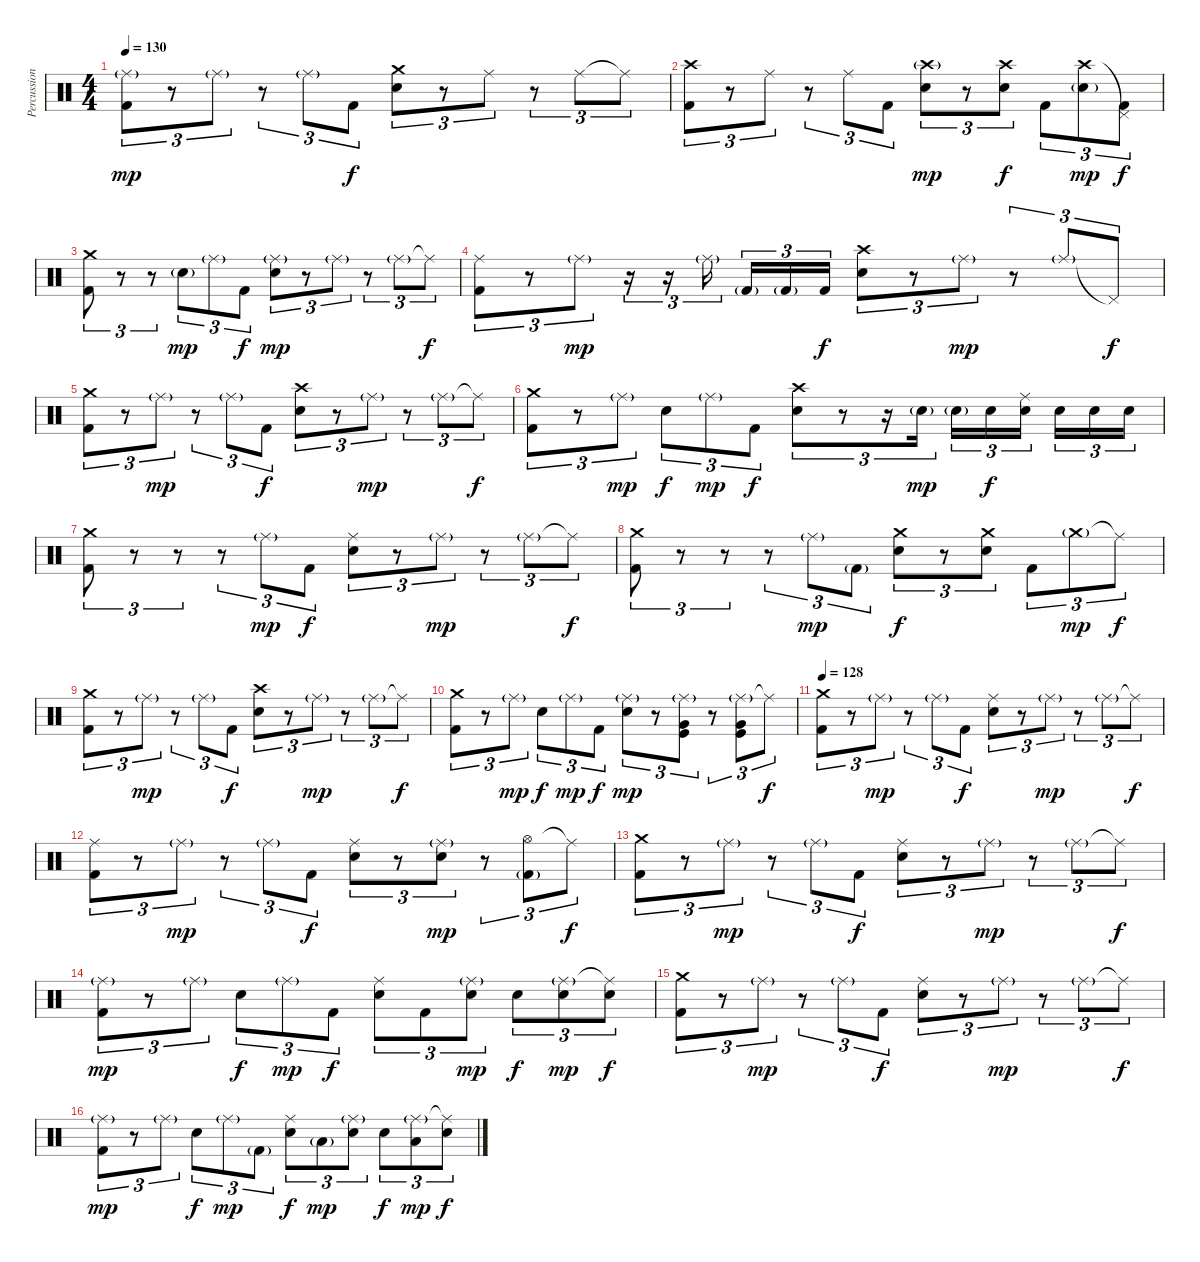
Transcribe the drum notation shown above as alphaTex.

\track ("Percussions" "Percussion") {instrument percussion}
\staff {score}
\articulation defaults
\ts (4 4)
\tempo 130
\clef neutral
\ks c
("Ride (middle)"{g} "Kick (hit) 2").8{tu (3 2) dy mp} r.8{tu (3 2)} "Ride (middle)"{g}.8{tu (3 2)} r.8{tu (3 2)} "Ride (middle)"{g}.8{tu (3 2)} "Kick (hit) 2".8{tu (3 2) dy f} ("Crash medium (hit)" "Electric Snare (hit)").8{tu (3 2)} r.8{tu (3 2)} "Ride (middle)".8{tu (3 2)} r.8{tu (3 2)} "Ride (middle)".8{tu (3 2)} "Ride (middle)"{t}.8{tu (3 2)} |
("Crash high (hit)" "Kick (hit) 2").8{tu (3 2)} r.8{tu (3 2)} "Ride (middle)".8{tu (3 2)} r.8{tu (3 2)} "Ride (middle)".8{tu (3 2)} "Kick (hit) 2".8{tu (3 2)} ("Crash high (hit)"{g} "Electric Snare (hit)").8{tu (3 2) dy mp} r.8{tu (3 2)} ("Crash high (hit)" "Electric Snare (hit)").8{tu (3 2) dy f} "Kick (hit) 2".8{tu (3 2)} ("Crash high (hit)" "Electric Snare (hit)"{g}).8{tu (3 2) dy mp} ("Pedal Hi-Hat (hit)"{t} "Kick (hit) 2").8{tu (3 2) dy f} |
("Crash medium (hit)" "Kick (hit) 2").8{tu (3 2)} r.8{tu (3 2)} r.8{tu (3 2)} "Electric Snare (hit)"{g}.8{tu (3 2) dy mp} "Ride (middle)"{g}.8{tu (3 2)} "Kick (hit) 2".8{tu (3 2) dy f} ("Ride (middle)"{g} "Electric Snare (hit)").8{tu (3 2) dy mp} r.8{tu (3 2)} "Ride (middle)"{g}.8{tu (3 2)} r.8{tu (3 2)} "Ride (middle)"{g}.8{tu (3 2)} "Ride (middle)"{t}.8{tu (3 2) dy f} |
("Ride (middle)" "Kick (hit) 2").8{tu (3 2)} r.8{tu (3 2)} "Ride (middle)"{g}.8{tu (3 2) dy mp} r.16{tu (3 2)} r.16{tu (3 2)} "Ride (middle)"{g}.16{tu (3 2) beam splitsecondary} "Kick (hit) 2"{g}.16{tu (3 2)} "Kick (hit) 2"{g}.16{tu (3 2)} "Kick (hit) 2".16{tu (3 2) dy f} ("Crash high (hit)" "Electric Snare (hit)").8{tu (3 2)} r.8{tu (3 2)} "Ride (middle)"{g}.8{tu (3 2) dy mp} r.8{tu (3 2)} "Ride (middle)"{g}.8{tu (3 2)} "Pedal Hi-Hat (hit)"{t}.8{tu (3 2) dy f} |
("Crash medium (hit)" "Kick (hit) 2").8{tu (3 2)} r.8{tu (3 2)} "Ride (middle)"{g}.8{tu (3 2) dy mp} r.8{tu (3 2)} "Ride (middle)"{g}.8{tu (3 2)} "Kick (hit) 2".8{tu (3 2) dy f} ("Crash high (hit)" "Electric Snare (hit)").8{tu (3 2)} r.8{tu (3 2)} "Ride (middle)"{g}.8{tu (3 2) dy mp} r.8{tu (3 2)} "Ride (middle)"{g}.8{tu (3 2)} "Ride (middle)"{t}.8{tu (3 2) dy f} |
("Crash medium (hit)" "Kick (hit) 2").8{tu (3 2)} r.8{tu (3 2)} "Ride (middle)"{g}.8{tu (3 2) dy mp} "Electric Snare (hit)".8{tu (3 2) dy f} "Ride (middle)"{g}.8{tu (3 2) dy mp} "Kick (hit) 2".8{tu (3 2) dy f} ("Crash high (hit)" "Electric Snare (hit)").8{tu (3 2)} r.8{tu (3 2)} r.16{tu (3 2)} "Electric Snare (hit)"{g}.16{tu (3 2) dy mp} "Electric Snare (hit)"{g}.16{tu (3 2)} "Electric Snare (hit)".16{tu (3 2) dy f} ("Ride (middle)" "Electric Snare (hit)").16{tu (3 2) beam splitsecondary} "Electric Snare (hit)".16{tu (3 2)} "Electric Snare (hit)".16{tu (3 2)} "Electric Snare (hit)".16{tu (3 2)} |
("Crash medium (hit)" "Kick (hit) 2").8{tu (3 2)} r.8{tu (3 2)} r.8{tu (3 2)} r.8{tu (3 2)} "Ride (middle)"{g}.8{tu (3 2) dy mp} "Kick (hit) 2".8{tu (3 2) dy f} ("Ride (middle)" "Electric Snare (hit)").8{tu (3 2)} r.8{tu (3 2)} "Ride (middle)"{g}.8{tu (3 2) dy mp} r.8{tu (3 2)} "Ride (middle)"{g}.8{tu (3 2)} "Ride (middle)"{t}.8{tu (3 2) dy f} |
("Crash medium (hit)" "Kick (hit) 2").8{tu (3 2)} r.8{tu (3 2)} r.8{tu (3 2)} r.8{tu (3 2)} "Ride (middle)"{g}.8{tu (3 2) dy mp} "Kick (hit) 2"{g}.8{tu (3 2)} ("Crash medium (hit)" "Electric Snare (hit)").8{tu (3 2) dy f} r.8{tu (3 2)} ("Crash medium (hit)" "Electric Snare (hit)").8{tu (3 2)} "Kick (hit) 2".8{tu (3 2)} "Crash medium (hit)"{g}.8{tu (3 2) dy mp} "Ride (middle)"{t}.8{tu (3 2) dy f} |
("Crash medium (hit)" "Kick (hit) 2").8{tu (3 2)} r.8{tu (3 2)} "Ride (middle)"{g}.8{tu (3 2) dy mp} r.8{tu (3 2)} "Ride (middle)"{g}.8{tu (3 2)} "Kick (hit) 2".8{tu (3 2) dy f} ("Crash high (hit)" "Electric Snare (hit)").8{tu (3 2)} r.8{tu (3 2)} "Ride (middle)"{g}.8{tu (3 2) dy mp} r.8{tu (3 2)} "Ride (middle)"{g}.8{tu (3 2)} "Ride (middle)"{t}.8{tu (3 2) dy f} |
("Crash medium (hit)" "Kick (hit) 2").8{tu (3 2)} r.8{tu (3 2)} "Ride (middle)"{g}.8{tu (3 2) dy mp} "Electric Snare (hit)".8{tu (3 2) dy f} "Ride (middle)"{g}.8{tu (3 2) dy mp} "Kick (hit) 2".8{tu (3 2) dy f} ("Ride (middle)"{g} "Electric Snare (hit)").8{tu (3 2) dy mp} r.8{tu (3 2)} ("Ride (middle)"{g} "Very Low Tom (hit)" "Kick (hit)").8{tu (3 2)} r.8{tu (3 2)} ("Ride (middle)"{g} "Very Low Tom (hit)" "Kick (hit)").8{tu (3 2)} "Ride (middle)"{t}.8{tu (3 2) dy f} |
\tempo 128
("Crash medium (hit)" "Kick (hit) 2").8{tu (3 2)} r.8{tu (3 2)} "Ride (middle)"{g}.8{tu (3 2) dy mp} r.8{tu (3 2)} "Ride (middle)"{g}.8{tu (3 2)} "Kick (hit) 2".8{tu (3 2) dy f} ("Ride (middle)" "Electric Snare (hit)").8{tu (3 2)} r.8{tu (3 2)} "Ride (middle)"{g}.8{tu (3 2) dy mp} r.8{tu (3 2)} "Ride (middle)"{g}.8{tu (3 2)} "Ride (middle)"{t}.8{tu (3 2) dy f} |
("Ride (middle)" "Kick (hit) 2").8{tu (3 2)} r.8{tu (3 2)} "Ride (middle)"{g}.8{tu (3 2) dy mp} r.8{tu (3 2)} "Ride (middle)"{g}.8{tu (3 2)} "Kick (hit) 2".8{tu (3 2) dy f} ("Ride (middle)" "Electric Snare (hit)").8{tu (3 2)} r.8{tu (3 2)} ("Ride (middle)"{g} "Electric Snare (hit)").8{tu (3 2) dy mp} r.8{tu (3 2)} ("Hi-Hat (open)" "Kick (hit) 2"{g}).8{tu (3 2)} "Ride (middle)"{t}.8{tu (3 2) dy f} |
("Crash medium (hit)" "Kick (hit) 2").8{tu (3 2)} r.8{tu (3 2)} "Ride (middle)"{g}.8{tu (3 2) dy mp} r.8{tu (3 2)} "Ride (middle)"{g}.8{tu (3 2)} "Kick (hit) 2".8{tu (3 2) dy f} ("Ride (middle)" "Electric Snare (hit)").8{tu (3 2)} r.8{tu (3 2)} "Ride (middle)"{g}.8{tu (3 2) dy mp} r.8{tu (3 2)} "Ride (middle)"{g}.8{tu (3 2)} "Ride (middle)"{t}.8{tu (3 2) dy f} |
("Ride (middle)"{g} "Kick (hit) 2").8{tu (3 2) dy mp} r.8{tu (3 2)} "Ride (middle)"{g}.8{tu (3 2)} "Electric Snare (hit)".8{tu (3 2) dy f} "Ride (middle)"{g}.8{tu (3 2) dy mp} "Kick (hit) 2".8{tu (3 2) dy f} ("Ride (middle)" "Electric Snare (hit)").8{tu (3 2)} "Kick (hit) 2".8{tu (3 2)} ("Ride (middle)"{g} "Electric Snare (hit)").8{tu (3 2) dy mp} "Electric Snare (hit)".8{tu (3 2) dy f} ("Ride (middle)"{g} "Electric Snare (hit)").8{tu (3 2) dy mp} ("Ride (middle)"{t} "Electric Snare (hit)").8{tu (3 2) dy f} |
("Crash medium (hit)" "Kick (hit) 2").8{tu (3 2)} r.8{tu (3 2)} "Ride (middle)"{g}.8{tu (3 2) dy mp} r.8{tu (3 2)} "Ride (middle)"{g}.8{tu (3 2)} "Kick (hit) 2".8{tu (3 2) dy f} ("Ride (middle)" "Electric Snare (hit)").8{tu (3 2)} r.8{tu (3 2)} "Ride (middle)"{g}.8{tu (3 2) dy mp} r.8{tu (3 2)} "Ride (middle)"{g}.8{tu (3 2)} "Ride (middle)"{t}.8{tu (3 2) dy f} |
("Ride (middle)"{g} "Kick (hit) 2").8{tu (3 2) dy mp} r.8{tu (3 2)} "Ride (middle)"{g}.8{tu (3 2)} "Electric Snare (hit)".8{tu (3 2) dy f} "Ride (middle)"{g}.8{tu (3 2) dy mp} "Kick (hit) 2"{g}.8{tu (3 2)} ("Ride (middle)" "Electric Snare (hit)").8{tu (3 2) dy f} "Low Floor Tom (hit)"{g}.8{tu (3 2) dy mp} ("Ride (middle)"{g} "Electric Snare (hit)").8{tu (3 2)} "Electric Snare (hit)".8{tu (3 2) dy f} ("Ride (middle)"{g} "Low Floor Tom (hit)").8{tu (3 2) dy mp} ("Ride (middle)"{t} "Electric Snare (hit)").8{tu (3 2) dy f}
